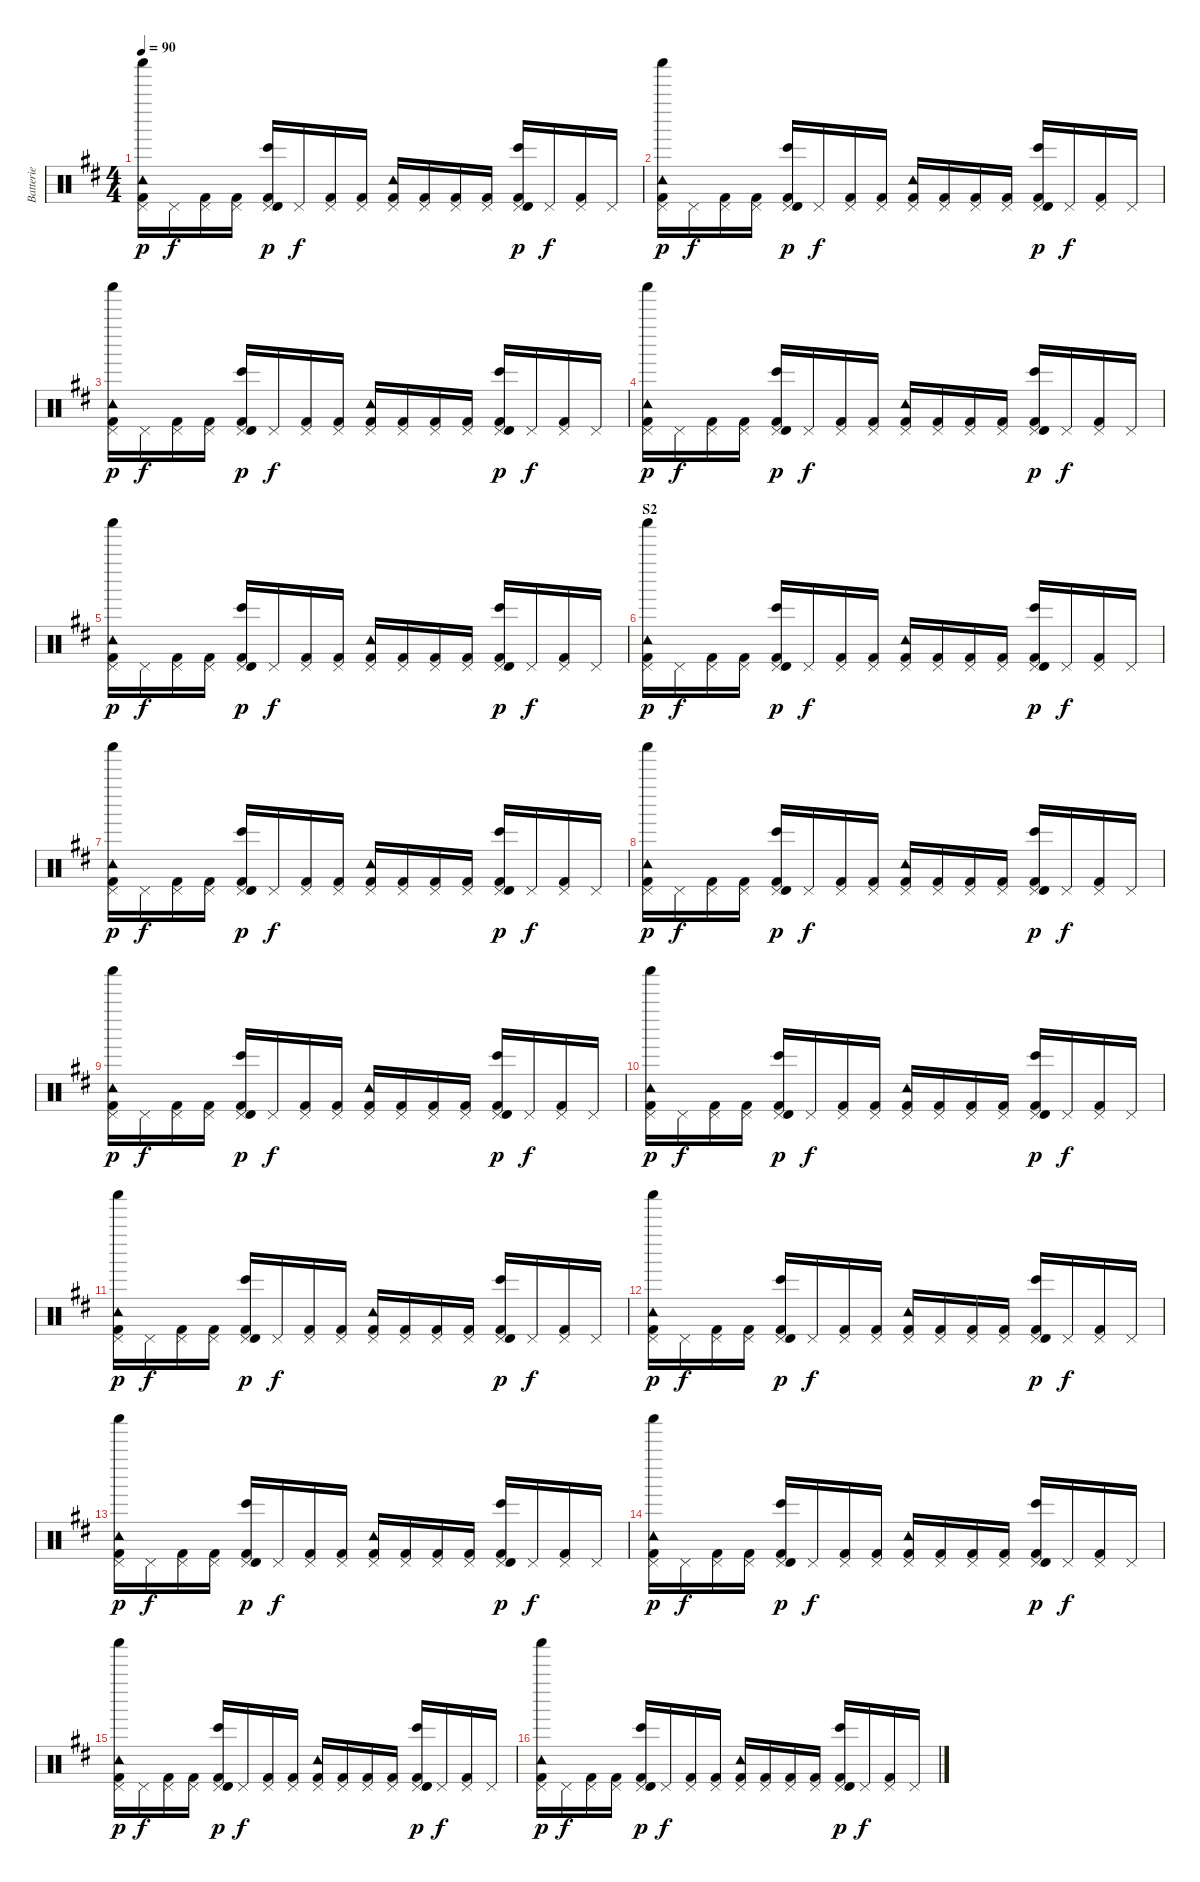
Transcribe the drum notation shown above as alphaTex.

\track ("Batterie" "Batterie") {instrument percussion}
\staff {score}
\articulation defaults
\ts (4 4)
\tempo 90
\clef neutral
\ks d
("Shaker (hit)" "Tambourine (hit)" "Pedal Hi-Hat (hit)" "Kick (hit) 2").16{dy p} "Pedal Hi-Hat (hit)".16{dy f} ("Pedal Hi-Hat (hit)" "Kick (hit) 2").16 ("Pedal Hi-Hat (hit)" "Kick (hit) 2").16 ("Pedal Hi-Hat (hit)" "Bongo High (hit)" "Timbale high (hit)" "Kick (hit) 2").16{dy p} "Pedal Hi-Hat (hit)".16{dy f} ("Pedal Hi-Hat (hit)" "Kick (hit) 2").16 ("Pedal Hi-Hat (hit)" "Kick (hit) 2").16 ("Tambourine (hit)" "Pedal Hi-Hat (hit)" "Kick (hit) 2").16 ("Pedal Hi-Hat (hit)" "Kick (hit) 2").16 ("Pedal Hi-Hat (hit)" "Kick (hit) 2").16 ("Pedal Hi-Hat (hit)" "Kick (hit) 2").16 ("Pedal Hi-Hat (hit)" "Bongo High (hit)" "Timbale high (hit)" "Kick (hit) 2").16{dy p} "Pedal Hi-Hat (hit)".16{dy f} ("Pedal Hi-Hat (hit)" "Kick (hit) 2").16 "Pedal Hi-Hat (hit)".16 |
("Shaker (hit)" "Tambourine (hit)" "Pedal Hi-Hat (hit)" "Kick (hit) 2").16{dy p} "Pedal Hi-Hat (hit)".16{dy f} ("Pedal Hi-Hat (hit)" "Kick (hit) 2").16 ("Pedal Hi-Hat (hit)" "Kick (hit) 2").16 ("Pedal Hi-Hat (hit)" "Bongo High (hit)" "Timbale high (hit)" "Kick (hit) 2").16{dy p} "Pedal Hi-Hat (hit)".16{dy f} ("Pedal Hi-Hat (hit)" "Kick (hit) 2").16 ("Pedal Hi-Hat (hit)" "Kick (hit) 2").16 ("Tambourine (hit)" "Pedal Hi-Hat (hit)" "Kick (hit) 2").16 ("Pedal Hi-Hat (hit)" "Kick (hit) 2").16 ("Pedal Hi-Hat (hit)" "Kick (hit) 2").16 ("Pedal Hi-Hat (hit)" "Kick (hit) 2").16 ("Pedal Hi-Hat (hit)" "Bongo High (hit)" "Timbale high (hit)" "Kick (hit) 2").16{dy p} "Pedal Hi-Hat (hit)".16{dy f} ("Pedal Hi-Hat (hit)" "Kick (hit) 2").16 "Pedal Hi-Hat (hit)".16 |
("Shaker (hit)" "Tambourine (hit)" "Pedal Hi-Hat (hit)" "Kick (hit) 2").16{dy p} "Pedal Hi-Hat (hit)".16{dy f} ("Pedal Hi-Hat (hit)" "Kick (hit) 2").16 ("Pedal Hi-Hat (hit)" "Kick (hit) 2").16 ("Pedal Hi-Hat (hit)" "Bongo High (hit)" "Timbale high (hit)" "Kick (hit) 2").16{dy p} "Pedal Hi-Hat (hit)".16{dy f} ("Pedal Hi-Hat (hit)" "Kick (hit) 2").16 ("Pedal Hi-Hat (hit)" "Kick (hit) 2").16 ("Tambourine (hit)" "Pedal Hi-Hat (hit)" "Kick (hit) 2").16 ("Pedal Hi-Hat (hit)" "Kick (hit) 2").16 ("Pedal Hi-Hat (hit)" "Kick (hit) 2").16 ("Pedal Hi-Hat (hit)" "Kick (hit) 2").16 ("Pedal Hi-Hat (hit)" "Bongo High (hit)" "Timbale high (hit)" "Kick (hit) 2").16{dy p} "Pedal Hi-Hat (hit)".16{dy f} ("Pedal Hi-Hat (hit)" "Kick (hit) 2").16 "Pedal Hi-Hat (hit)".16 |
("Shaker (hit)" "Tambourine (hit)" "Pedal Hi-Hat (hit)" "Kick (hit) 2").16{dy p} "Pedal Hi-Hat (hit)".16{dy f} ("Pedal Hi-Hat (hit)" "Kick (hit) 2").16 ("Pedal Hi-Hat (hit)" "Kick (hit) 2").16 ("Pedal Hi-Hat (hit)" "Bongo High (hit)" "Timbale high (hit)" "Kick (hit) 2").16{dy p} "Pedal Hi-Hat (hit)".16{dy f} ("Pedal Hi-Hat (hit)" "Kick (hit) 2").16 ("Pedal Hi-Hat (hit)" "Kick (hit) 2").16 ("Tambourine (hit)" "Pedal Hi-Hat (hit)" "Kick (hit) 2").16 ("Pedal Hi-Hat (hit)" "Kick (hit) 2").16 ("Pedal Hi-Hat (hit)" "Kick (hit) 2").16 ("Pedal Hi-Hat (hit)" "Kick (hit) 2").16 ("Pedal Hi-Hat (hit)" "Bongo High (hit)" "Timbale high (hit)" "Kick (hit) 2").16{dy p} "Pedal Hi-Hat (hit)".16{dy f} ("Pedal Hi-Hat (hit)" "Kick (hit) 2").16 "Pedal Hi-Hat (hit)".16 |
("Shaker (hit)" "Tambourine (hit)" "Pedal Hi-Hat (hit)" "Kick (hit) 2").16{dy p} "Pedal Hi-Hat (hit)".16{dy f} ("Pedal Hi-Hat (hit)" "Kick (hit) 2").16 ("Pedal Hi-Hat (hit)" "Kick (hit) 2").16 ("Pedal Hi-Hat (hit)" "Bongo High (hit)" "Timbale high (hit)" "Kick (hit) 2").16{dy p} "Pedal Hi-Hat (hit)".16{dy f} ("Pedal Hi-Hat (hit)" "Kick (hit) 2").16 ("Pedal Hi-Hat (hit)" "Kick (hit) 2").16 ("Tambourine (hit)" "Pedal Hi-Hat (hit)" "Kick (hit) 2").16 ("Pedal Hi-Hat (hit)" "Kick (hit) 2").16 ("Pedal Hi-Hat (hit)" "Kick (hit) 2").16 ("Pedal Hi-Hat (hit)" "Kick (hit) 2").16 ("Pedal Hi-Hat (hit)" "Bongo High (hit)" "Timbale high (hit)" "Kick (hit) 2").16{dy p} "Pedal Hi-Hat (hit)".16{dy f} ("Pedal Hi-Hat (hit)" "Kick (hit) 2").16 "Pedal Hi-Hat (hit)".16 |
\section ("" "S2")
("Shaker (hit)" "Tambourine (hit)" "Pedal Hi-Hat (hit)" "Kick (hit) 2").16{dy p} "Pedal Hi-Hat (hit)".16{dy f} ("Pedal Hi-Hat (hit)" "Kick (hit) 2").16 ("Pedal Hi-Hat (hit)" "Kick (hit) 2").16 ("Pedal Hi-Hat (hit)" "Bongo High (hit)" "Timbale high (hit)" "Kick (hit) 2").16{dy p} "Pedal Hi-Hat (hit)".16{dy f} ("Pedal Hi-Hat (hit)" "Kick (hit) 2").16 ("Pedal Hi-Hat (hit)" "Kick (hit) 2").16 ("Tambourine (hit)" "Pedal Hi-Hat (hit)" "Kick (hit) 2").16 ("Pedal Hi-Hat (hit)" "Kick (hit) 2").16 ("Pedal Hi-Hat (hit)" "Kick (hit) 2").16 ("Pedal Hi-Hat (hit)" "Kick (hit) 2").16 ("Pedal Hi-Hat (hit)" "Bongo High (hit)" "Timbale high (hit)" "Kick (hit) 2").16{dy p} "Pedal Hi-Hat (hit)".16{dy f} ("Pedal Hi-Hat (hit)" "Kick (hit) 2").16 "Pedal Hi-Hat (hit)".16 |
("Shaker (hit)" "Tambourine (hit)" "Pedal Hi-Hat (hit)" "Kick (hit) 2").16{dy p} "Pedal Hi-Hat (hit)".16{dy f} ("Pedal Hi-Hat (hit)" "Kick (hit) 2").16 ("Pedal Hi-Hat (hit)" "Kick (hit) 2").16 ("Pedal Hi-Hat (hit)" "Bongo High (hit)" "Timbale high (hit)" "Kick (hit) 2").16{dy p} "Pedal Hi-Hat (hit)".16{dy f} ("Pedal Hi-Hat (hit)" "Kick (hit) 2").16 ("Pedal Hi-Hat (hit)" "Kick (hit) 2").16 ("Tambourine (hit)" "Pedal Hi-Hat (hit)" "Kick (hit) 2").16 ("Pedal Hi-Hat (hit)" "Kick (hit) 2").16 ("Pedal Hi-Hat (hit)" "Kick (hit) 2").16 ("Pedal Hi-Hat (hit)" "Kick (hit) 2").16 ("Pedal Hi-Hat (hit)" "Bongo High (hit)" "Timbale high (hit)" "Kick (hit) 2").16{dy p} "Pedal Hi-Hat (hit)".16{dy f} ("Pedal Hi-Hat (hit)" "Kick (hit) 2").16 "Pedal Hi-Hat (hit)".16 |
("Shaker (hit)" "Tambourine (hit)" "Pedal Hi-Hat (hit)" "Kick (hit) 2").16{dy p} "Pedal Hi-Hat (hit)".16{dy f} ("Pedal Hi-Hat (hit)" "Kick (hit) 2").16 ("Pedal Hi-Hat (hit)" "Kick (hit) 2").16 ("Pedal Hi-Hat (hit)" "Bongo High (hit)" "Timbale high (hit)" "Kick (hit) 2").16{dy p} "Pedal Hi-Hat (hit)".16{dy f} ("Pedal Hi-Hat (hit)" "Kick (hit) 2").16 ("Pedal Hi-Hat (hit)" "Kick (hit) 2").16 ("Tambourine (hit)" "Pedal Hi-Hat (hit)" "Kick (hit) 2").16 ("Pedal Hi-Hat (hit)" "Kick (hit) 2").16 ("Pedal Hi-Hat (hit)" "Kick (hit) 2").16 ("Pedal Hi-Hat (hit)" "Kick (hit) 2").16 ("Pedal Hi-Hat (hit)" "Bongo High (hit)" "Timbale high (hit)" "Kick (hit) 2").16{dy p} "Pedal Hi-Hat (hit)".16{dy f} ("Pedal Hi-Hat (hit)" "Kick (hit) 2").16 "Pedal Hi-Hat (hit)".16 |
("Shaker (hit)" "Tambourine (hit)" "Pedal Hi-Hat (hit)" "Kick (hit) 2").16{dy p} "Pedal Hi-Hat (hit)".16{dy f} ("Pedal Hi-Hat (hit)" "Kick (hit) 2").16 ("Pedal Hi-Hat (hit)" "Kick (hit) 2").16 ("Pedal Hi-Hat (hit)" "Bongo High (hit)" "Timbale high (hit)" "Kick (hit) 2").16{dy p} "Pedal Hi-Hat (hit)".16{dy f} ("Pedal Hi-Hat (hit)" "Kick (hit) 2").16 ("Pedal Hi-Hat (hit)" "Kick (hit) 2").16 ("Tambourine (hit)" "Pedal Hi-Hat (hit)" "Kick (hit) 2").16 ("Pedal Hi-Hat (hit)" "Kick (hit) 2").16 ("Pedal Hi-Hat (hit)" "Kick (hit) 2").16 ("Pedal Hi-Hat (hit)" "Kick (hit) 2").16 ("Pedal Hi-Hat (hit)" "Bongo High (hit)" "Timbale high (hit)" "Kick (hit) 2").16{dy p} "Pedal Hi-Hat (hit)".16{dy f} ("Pedal Hi-Hat (hit)" "Kick (hit) 2").16 "Pedal Hi-Hat (hit)".16 |
("Shaker (hit)" "Tambourine (hit)" "Pedal Hi-Hat (hit)" "Kick (hit) 2").16{dy p} "Pedal Hi-Hat (hit)".16{dy f} ("Pedal Hi-Hat (hit)" "Kick (hit) 2").16 ("Pedal Hi-Hat (hit)" "Kick (hit) 2").16 ("Pedal Hi-Hat (hit)" "Bongo High (hit)" "Timbale high (hit)" "Kick (hit) 2").16{dy p} "Pedal Hi-Hat (hit)".16{dy f} ("Pedal Hi-Hat (hit)" "Kick (hit) 2").16 ("Pedal Hi-Hat (hit)" "Kick (hit) 2").16 ("Tambourine (hit)" "Pedal Hi-Hat (hit)" "Kick (hit) 2").16 ("Pedal Hi-Hat (hit)" "Kick (hit) 2").16 ("Pedal Hi-Hat (hit)" "Kick (hit) 2").16 ("Pedal Hi-Hat (hit)" "Kick (hit) 2").16 ("Pedal Hi-Hat (hit)" "Bongo High (hit)" "Timbale high (hit)" "Kick (hit) 2").16{dy p} "Pedal Hi-Hat (hit)".16{dy f} ("Pedal Hi-Hat (hit)" "Kick (hit) 2").16 "Pedal Hi-Hat (hit)".16 |
("Shaker (hit)" "Tambourine (hit)" "Pedal Hi-Hat (hit)" "Kick (hit) 2").16{dy p} "Pedal Hi-Hat (hit)".16{dy f} ("Pedal Hi-Hat (hit)" "Kick (hit) 2").16 ("Pedal Hi-Hat (hit)" "Kick (hit) 2").16 ("Pedal Hi-Hat (hit)" "Bongo High (hit)" "Timbale high (hit)" "Kick (hit) 2").16{dy p} "Pedal Hi-Hat (hit)".16{dy f} ("Pedal Hi-Hat (hit)" "Kick (hit) 2").16 ("Pedal Hi-Hat (hit)" "Kick (hit) 2").16 ("Tambourine (hit)" "Pedal Hi-Hat (hit)" "Kick (hit) 2").16 ("Pedal Hi-Hat (hit)" "Kick (hit) 2").16 ("Pedal Hi-Hat (hit)" "Kick (hit) 2").16 ("Pedal Hi-Hat (hit)" "Kick (hit) 2").16 ("Pedal Hi-Hat (hit)" "Bongo High (hit)" "Timbale high (hit)" "Kick (hit) 2").16{dy p} "Pedal Hi-Hat (hit)".16{dy f} ("Pedal Hi-Hat (hit)" "Kick (hit) 2").16 "Pedal Hi-Hat (hit)".16 |
("Shaker (hit)" "Tambourine (hit)" "Pedal Hi-Hat (hit)" "Kick (hit) 2").16{dy p} "Pedal Hi-Hat (hit)".16{dy f} ("Pedal Hi-Hat (hit)" "Kick (hit) 2").16 ("Pedal Hi-Hat (hit)" "Kick (hit) 2").16 ("Pedal Hi-Hat (hit)" "Bongo High (hit)" "Timbale high (hit)" "Kick (hit) 2").16{dy p} "Pedal Hi-Hat (hit)".16{dy f} ("Pedal Hi-Hat (hit)" "Kick (hit) 2").16 ("Pedal Hi-Hat (hit)" "Kick (hit) 2").16 ("Tambourine (hit)" "Pedal Hi-Hat (hit)" "Kick (hit) 2").16 ("Pedal Hi-Hat (hit)" "Kick (hit) 2").16 ("Pedal Hi-Hat (hit)" "Kick (hit) 2").16 ("Pedal Hi-Hat (hit)" "Kick (hit) 2").16 ("Pedal Hi-Hat (hit)" "Bongo High (hit)" "Timbale high (hit)" "Kick (hit) 2").16{dy p} "Pedal Hi-Hat (hit)".16{dy f} ("Pedal Hi-Hat (hit)" "Kick (hit) 2").16 "Pedal Hi-Hat (hit)".16 |
("Shaker (hit)" "Tambourine (hit)" "Pedal Hi-Hat (hit)" "Kick (hit) 2").16{dy p} "Pedal Hi-Hat (hit)".16{dy f} ("Pedal Hi-Hat (hit)" "Kick (hit) 2").16 ("Pedal Hi-Hat (hit)" "Kick (hit) 2").16 ("Pedal Hi-Hat (hit)" "Bongo High (hit)" "Timbale high (hit)" "Kick (hit) 2").16{dy p} "Pedal Hi-Hat (hit)".16{dy f} ("Pedal Hi-Hat (hit)" "Kick (hit) 2").16 ("Pedal Hi-Hat (hit)" "Kick (hit) 2").16 ("Tambourine (hit)" "Pedal Hi-Hat (hit)" "Kick (hit) 2").16 ("Pedal Hi-Hat (hit)" "Kick (hit) 2").16 ("Pedal Hi-Hat (hit)" "Kick (hit) 2").16 ("Pedal Hi-Hat (hit)" "Kick (hit) 2").16 ("Pedal Hi-Hat (hit)" "Bongo High (hit)" "Timbale high (hit)" "Kick (hit) 2").16{dy p} "Pedal Hi-Hat (hit)".16{dy f} ("Pedal Hi-Hat (hit)" "Kick (hit) 2").16 "Pedal Hi-Hat (hit)".16 |
("Shaker (hit)" "Tambourine (hit)" "Pedal Hi-Hat (hit)" "Kick (hit) 2").16{dy p} "Pedal Hi-Hat (hit)".16{dy f} ("Pedal Hi-Hat (hit)" "Kick (hit) 2").16 ("Pedal Hi-Hat (hit)" "Kick (hit) 2").16 ("Pedal Hi-Hat (hit)" "Bongo High (hit)" "Timbale high (hit)" "Kick (hit) 2").16{dy p} "Pedal Hi-Hat (hit)".16{dy f} ("Pedal Hi-Hat (hit)" "Kick (hit) 2").16 ("Pedal Hi-Hat (hit)" "Kick (hit) 2").16 ("Tambourine (hit)" "Pedal Hi-Hat (hit)" "Kick (hit) 2").16 ("Pedal Hi-Hat (hit)" "Kick (hit) 2").16 ("Pedal Hi-Hat (hit)" "Kick (hit) 2").16 ("Pedal Hi-Hat (hit)" "Kick (hit) 2").16 ("Pedal Hi-Hat (hit)" "Bongo High (hit)" "Timbale high (hit)" "Kick (hit) 2").16{dy p} "Pedal Hi-Hat (hit)".16{dy f} ("Pedal Hi-Hat (hit)" "Kick (hit) 2").16 "Pedal Hi-Hat (hit)".16 |
("Shaker (hit)" "Tambourine (hit)" "Pedal Hi-Hat (hit)" "Kick (hit) 2").16{dy p} "Pedal Hi-Hat (hit)".16{dy f} ("Pedal Hi-Hat (hit)" "Kick (hit) 2").16 ("Pedal Hi-Hat (hit)" "Kick (hit) 2").16 ("Pedal Hi-Hat (hit)" "Bongo High (hit)" "Timbale high (hit)" "Kick (hit) 2").16{dy p} "Pedal Hi-Hat (hit)".16{dy f} ("Pedal Hi-Hat (hit)" "Kick (hit) 2").16 ("Pedal Hi-Hat (hit)" "Kick (hit) 2").16 ("Tambourine (hit)" "Pedal Hi-Hat (hit)" "Kick (hit) 2").16 ("Pedal Hi-Hat (hit)" "Kick (hit) 2").16 ("Pedal Hi-Hat (hit)" "Kick (hit) 2").16 ("Pedal Hi-Hat (hit)" "Kick (hit) 2").16 ("Pedal Hi-Hat (hit)" "Bongo High (hit)" "Timbale high (hit)" "Kick (hit) 2").16{dy p} "Pedal Hi-Hat (hit)".16{dy f} ("Pedal Hi-Hat (hit)" "Kick (hit) 2").16 "Pedal Hi-Hat (hit)".16 |
("Shaker (hit)" "Tambourine (hit)" "Pedal Hi-Hat (hit)" "Kick (hit) 2").16{dy p} "Pedal Hi-Hat (hit)".16{dy f} ("Pedal Hi-Hat (hit)" "Kick (hit) 2").16 ("Pedal Hi-Hat (hit)" "Kick (hit) 2").16 ("Pedal Hi-Hat (hit)" "Bongo High (hit)" "Timbale high (hit)" "Kick (hit) 2").16{dy p} "Pedal Hi-Hat (hit)".16{dy f} ("Pedal Hi-Hat (hit)" "Kick (hit) 2").16 ("Pedal Hi-Hat (hit)" "Kick (hit) 2").16 ("Tambourine (hit)" "Pedal Hi-Hat (hit)" "Kick (hit) 2").16 ("Pedal Hi-Hat (hit)" "Kick (hit) 2").16 ("Pedal Hi-Hat (hit)" "Kick (hit) 2").16 ("Pedal Hi-Hat (hit)" "Kick (hit) 2").16 ("Pedal Hi-Hat (hit)" "Bongo High (hit)" "Timbale high (hit)" "Kick (hit) 2").16{dy p} "Pedal Hi-Hat (hit)".16{dy f} ("Pedal Hi-Hat (hit)" "Kick (hit) 2").16 "Pedal Hi-Hat (hit)".16
